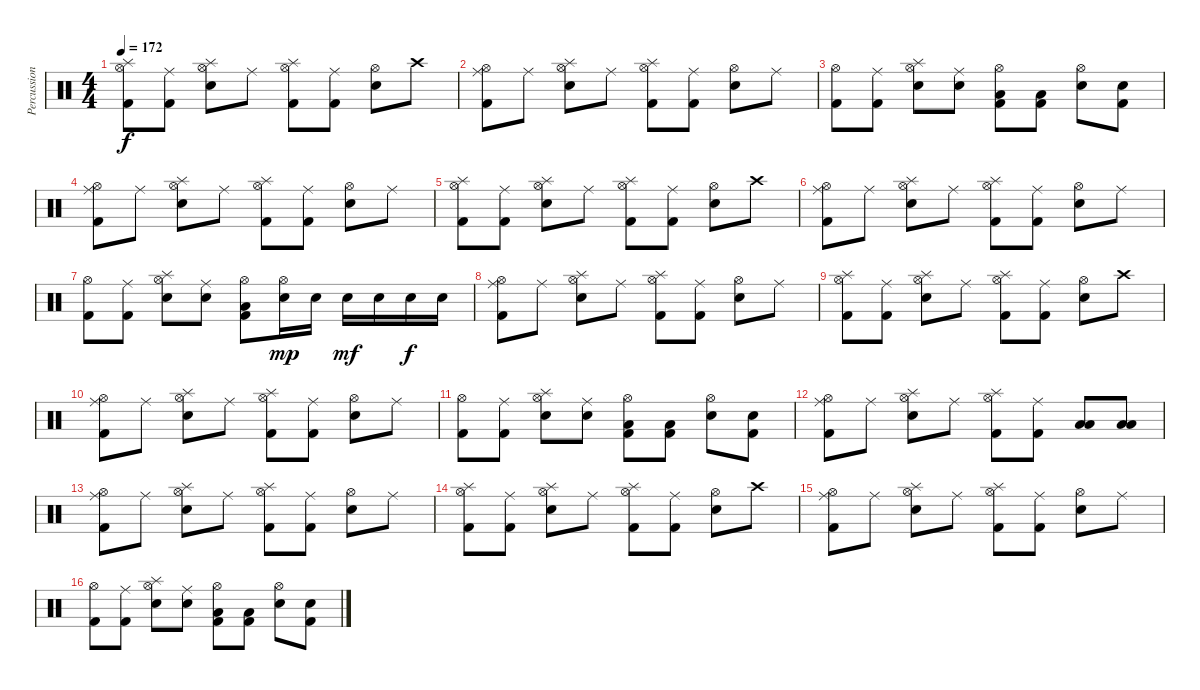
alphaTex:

\track ("Percussion" "Percussion") {instrument percussion}
\staff {score}
\articulation defaults
\ts (4 4)
\tempo 172
\clef neutral
\ks c
("Hi-Hat (open)" "Splash (hit)" "Kick (hit) 2").8{dy f} ("Ride (middle)" "Kick (hit) 2").8 ("Hi-Hat (open)" "Splash (hit)" "Electric Snare (hit)").8 "Ride (middle)".8 ("Hi-Hat (open)" "Splash (hit)" "Kick (hit) 2").8 ("Ride (middle)" "Kick (hit) 2").8 ("Hi-Hat (open)" "Electric Snare (hit)").8 "Crash high (hit)".8 |
("Hi-Hat (open)" "Ride (middle)" "Kick (hit) 2").8 "Ride (middle)".8 ("Hi-Hat (open)" "Splash (hit)" "Electric Snare (hit)").8 "Ride (middle)".8 ("Hi-Hat (open)" "Splash (hit)" "Kick (hit) 2").8 ("Ride (middle)" "Kick (hit) 2").8 ("Hi-Hat (open)" "Electric Snare (hit)").8 "Ride (middle)".8 |
("Hi-Hat (open)" "Kick (hit) 2").8 ("Ride (middle)" "Kick (hit) 2").8 ("Hi-Hat (open)" "Splash (hit)" "Electric Snare (hit)").8 ("Ride (middle)" "Electric Snare (hit)").8 ("Hi-Hat (open)" "Kick (hit) 2" "Low Floor Tom (hit)").8 ("Kick (hit) 2" "Low Floor Tom (hit)").8 ("Hi-Hat (open)" "Snare (hit) 2").8 ("Electric Snare (hit)" "Kick (hit) 2").8 |
("Hi-Hat (open)" "Ride (middle)" "Kick (hit) 2").8 "Ride (middle)".8 ("Hi-Hat (open)" "Splash (hit)" "Electric Snare (hit)").8 "Ride (middle)".8 ("Hi-Hat (open)" "Splash (hit)" "Kick (hit) 2").8 ("Ride (middle)" "Kick (hit) 2").8 ("Hi-Hat (open)" "Electric Snare (hit)").8 "Ride (middle)".8 |
("Hi-Hat (open)" "Splash (hit)" "Kick (hit) 2").8 ("Ride (middle)" "Kick (hit) 2").8 ("Hi-Hat (open)" "Splash (hit)" "Electric Snare (hit)").8 "Ride (middle)".8 ("Hi-Hat (open)" "Splash (hit)" "Kick (hit) 2").8 ("Ride (middle)" "Kick (hit) 2").8 ("Hi-Hat (open)" "Electric Snare (hit)").8 "Crash high (hit)".8 |
("Hi-Hat (open)" "Ride (middle)" "Kick (hit) 2").8 "Ride (middle)".8 ("Hi-Hat (open)" "Splash (hit)" "Electric Snare (hit)").8 "Ride (middle)".8 ("Hi-Hat (open)" "Splash (hit)" "Kick (hit) 2").8 ("Ride (middle)" "Kick (hit) 2").8 ("Hi-Hat (open)" "Electric Snare (hit)").8 "Ride (middle)".8 |
("Hi-Hat (open)" "Kick (hit) 2").8 ("Ride (middle)" "Kick (hit) 2").8 ("Hi-Hat (open)" "Splash (hit)" "Electric Snare (hit)").8 ("Ride (middle)" "Electric Snare (hit)").8 ("Hi-Hat (open)" "Kick (hit) 2" "Low Floor Tom (hit)").8 ("Hi-Hat (open)" "Electric Snare (hit)").16{dy mp} "Electric Snare (hit)".16 "Electric Snare (hit)".16{dy mf} "Electric Snare (hit)".16 "Electric Snare (hit)".16{dy f} "Electric Snare (hit)".16 |
("Hi-Hat (open)" "Ride (middle)" "Kick (hit) 2").8 "Ride (middle)".8 ("Hi-Hat (open)" "Splash (hit)" "Electric Snare (hit)").8 "Ride (middle)".8 ("Hi-Hat (open)" "Splash (hit)" "Kick (hit) 2").8 ("Ride (middle)" "Kick (hit) 2").8 ("Hi-Hat (open)" "Electric Snare (hit)").8 "Ride (middle)".8 |
("Hi-Hat (open)" "Splash (hit)" "Kick (hit) 2").8 ("Ride (middle)" "Kick (hit) 2").8 ("Hi-Hat (open)" "Splash (hit)" "Electric Snare (hit)").8 "Ride (middle)".8 ("Hi-Hat (open)" "Splash (hit)" "Kick (hit) 2").8 ("Ride (middle)" "Kick (hit) 2").8 ("Hi-Hat (open)" "Electric Snare (hit)").8 "Crash high (hit)".8 |
("Hi-Hat (open)" "Ride (middle)" "Kick (hit) 2").8 "Ride (middle)".8 ("Hi-Hat (open)" "Splash (hit)" "Electric Snare (hit)").8 "Ride (middle)".8 ("Hi-Hat (open)" "Splash (hit)" "Kick (hit) 2").8 ("Ride (middle)" "Kick (hit) 2").8 ("Hi-Hat (open)" "Electric Snare (hit)").8 "Ride (middle)".8 |
("Hi-Hat (open)" "Kick (hit) 2").8 ("Ride (middle)" "Kick (hit) 2").8 ("Hi-Hat (open)" "Splash (hit)" "Electric Snare (hit)").8 ("Ride (middle)" "Electric Snare (hit)").8 ("Hi-Hat (open)" "Kick (hit) 2" "Low Floor Tom (hit)").8 ("Kick (hit) 2" "Low Floor Tom (hit)").8 ("Hi-Hat (open)" "Snare (hit) 2").8 ("Electric Snare (hit)" "Kick (hit) 2").8 |
("Hi-Hat (open)" "Ride (middle)" "Kick (hit) 2").8 "Ride (middle)".8 ("Hi-Hat (open)" "Splash (hit)" "Electric Snare (hit)").8 "Ride (middle)".8 ("Hi-Hat (open)" "Splash (hit)" "Kick (hit) 2").8 ("Ride (middle)" "Kick (hit) 2").8 ("Low Floor Tom (hit)" "Low Tom (hit)").8 ("Low Floor Tom (hit)" "Low Tom (hit)").8 |
("Hi-Hat (open)" "Ride (middle)" "Kick (hit) 2").8 "Ride (middle)".8 ("Hi-Hat (open)" "Splash (hit)" "Electric Snare (hit)").8 "Ride (middle)".8 ("Hi-Hat (open)" "Splash (hit)" "Kick (hit) 2").8 ("Ride (middle)" "Kick (hit) 2").8 ("Hi-Hat (open)" "Electric Snare (hit)").8 "Ride (middle)".8 |
("Hi-Hat (open)" "Splash (hit)" "Kick (hit) 2").8 ("Ride (middle)" "Kick (hit) 2").8 ("Hi-Hat (open)" "Splash (hit)" "Electric Snare (hit)").8 "Ride (middle)".8 ("Hi-Hat (open)" "Splash (hit)" "Kick (hit) 2").8 ("Ride (middle)" "Kick (hit) 2").8 ("Hi-Hat (open)" "Electric Snare (hit)").8 "Crash high (hit)".8 |
("Hi-Hat (open)" "Ride (middle)" "Kick (hit) 2").8 "Ride (middle)".8 ("Hi-Hat (open)" "Splash (hit)" "Electric Snare (hit)").8 "Ride (middle)".8 ("Hi-Hat (open)" "Splash (hit)" "Kick (hit) 2").8 ("Ride (middle)" "Kick (hit) 2").8 ("Hi-Hat (open)" "Electric Snare (hit)").8 "Ride (middle)".8 |
("Hi-Hat (open)" "Kick (hit) 2").8 ("Ride (middle)" "Kick (hit) 2").8 ("Hi-Hat (open)" "Splash (hit)" "Electric Snare (hit)").8 ("Ride (middle)" "Electric Snare (hit)").8 ("Hi-Hat (open)" "Kick (hit) 2" "Low Floor Tom (hit)").8 ("Kick (hit) 2" "Low Floor Tom (hit)").8 ("Hi-Hat (open)" "Snare (hit) 2").8 ("Electric Snare (hit)" "Kick (hit) 2").8
